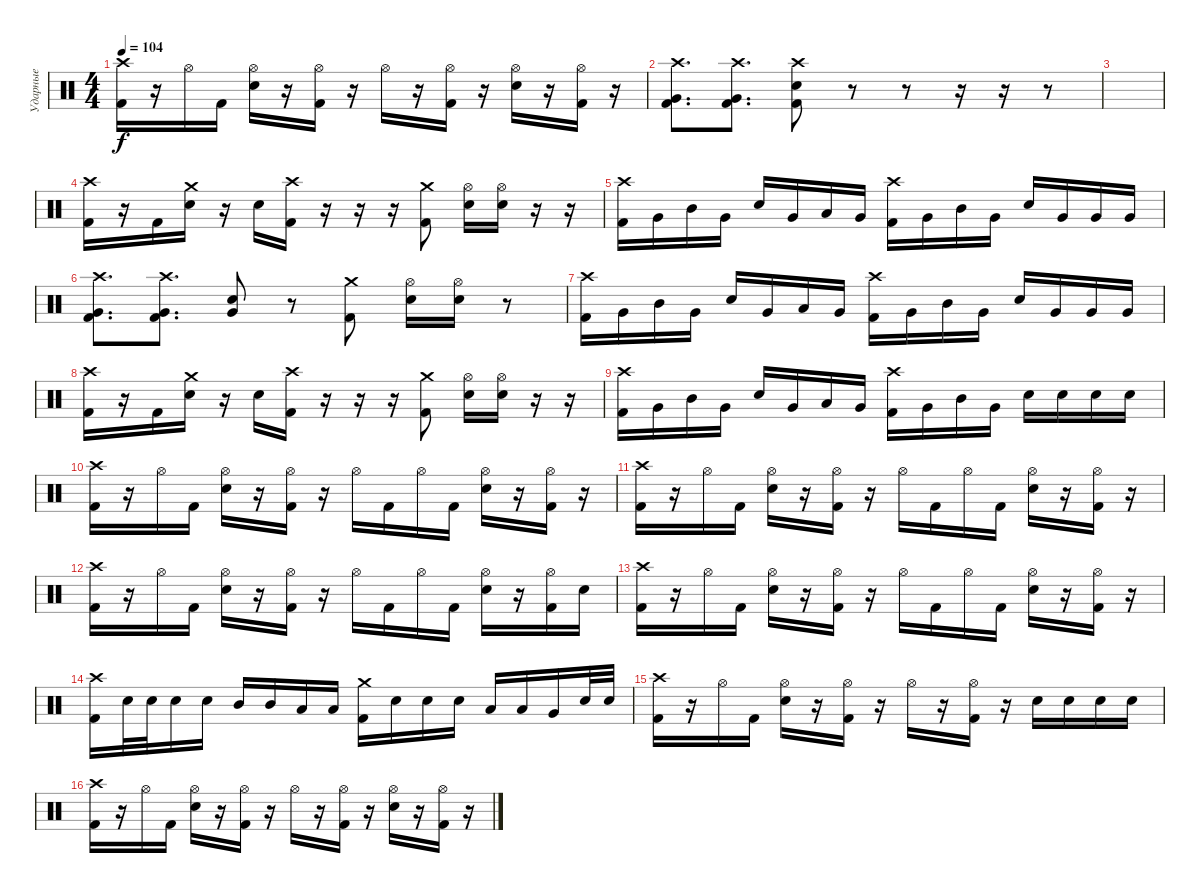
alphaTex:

\track ("Ударные" "Ударные") {instrument percussion}
\staff {score}
\articulation defaults
\ts (4 4)
\tempo 104
\clef neutral
\ks c
("Crash high (hit)" "Kick (hit) 2").16{dy f} r.16 "Hi-Hat (open)".16 "Kick (hit) 2".16 ("Hi-Hat (open)" "Snare (hit) 2").16 r.16 ("Hi-Hat (open)" "Kick (hit) 2").16 r.16 "Hi-Hat (open)".16 r.16 ("Hi-Hat (open)" "Kick (hit) 2").16 r.16 ("Hi-Hat (open)" "Snare (hit) 2").16 r.16 ("Hi-Hat (open)" "Kick (hit) 2").16 r.16 |
("Crash high (hit)" "Very Low Tom (hit)" "Kick (hit) 2").8{d} ("Crash high (hit)" "Very Low Tom (hit)" "Kick (hit) 2").8{d} ("Crash high (hit)" "Snare (hit) 2" "Kick (hit) 2").8 r.8 r.8 r.16 r.16 r.8 |
|
("Crash high (hit)" "Kick (hit) 2").16 r.16 "Kick (hit) 2".16 ("Crash medium (hit)" "Snare (hit) 2").16 r.16 "Snare (hit) 2".16 ("Crash high (hit)" "Kick (hit) 2").16 r.16 r.16 r.16 ("Crash medium (hit)" "Kick (hit) 2").8 ("Hi-Hat (open)" "Snare (hit) 2").16 ("Hi-Hat (open)" "Snare (hit) 2").16 r.16 r.16 |
("Crash high (hit)" "Kick (hit) 2").16 "Very Low Tom (hit)".16 "Mid Tom (hit)".16 "Very Low Tom (hit)".16 "Snare (hit) 2".16 "Very Low Tom (hit)".16 "Low Tom (hit)".16 "Very Low Tom (hit)".16 ("Crash high (hit)" "Kick (hit) 2").16 "Very Low Tom (hit)".16 "Mid Tom (hit)".16 "Very Low Tom (hit)".16 "Snare (hit) 2".16 "Very Low Tom (hit)".16 "Very Low Tom (hit)".16 "Very Low Tom (hit)".16 |
("Crash high (hit)" "Very Low Tom (hit)" "Kick (hit) 2").8{d} ("Crash high (hit)" "Very Low Tom (hit)" "Kick (hit) 2").8{d} ("Snare (hit) 2" "Very Low Tom (hit)").8 r.8 ("Crash medium (hit)" "Kick (hit) 2").8 ("Hi-Hat (open)" "Snare (hit) 2").16 ("Hi-Hat (open)" "Snare (hit) 2").16 r.8 |
("Crash high (hit)" "Kick (hit) 2").16 "Very Low Tom (hit)".16 "Mid Tom (hit)".16 "Very Low Tom (hit)".16 "Snare (hit) 2".16 "Very Low Tom (hit)".16 "Low Tom (hit)".16 "Very Low Tom (hit)".16 ("Crash high (hit)" "Kick (hit) 2").16 "Very Low Tom (hit)".16 "Mid Tom (hit)".16 "Very Low Tom (hit)".16 "Snare (hit) 2".16 "Very Low Tom (hit)".16 "Very Low Tom (hit)".16 "Very Low Tom (hit)".16 |
("Crash high (hit)" "Kick (hit) 2").16 r.16 "Kick (hit) 2".16 ("Crash medium (hit)" "Snare (hit) 2").16 r.16 "Snare (hit) 2".16 ("Crash high (hit)" "Kick (hit) 2").16 r.16 r.16 r.16 ("Crash medium (hit)" "Kick (hit) 2").8 ("Hi-Hat (open)" "Snare (hit) 2").16 ("Hi-Hat (open)" "Snare (hit) 2").16 r.16 r.16 |
("Crash high (hit)" "Kick (hit) 2").16 "Very Low Tom (hit)".16 "Mid Tom (hit)".16 "Very Low Tom (hit)".16 "Snare (hit) 2".16 "Very Low Tom (hit)".16 "Low Tom (hit)".16 "Very Low Tom (hit)".16 ("Crash high (hit)" "Kick (hit) 2").16 "Very Low Tom (hit)".16 "Mid Tom (hit)".16 "Very Low Tom (hit)".16 "Snare (hit) 2".16 "Snare (hit) 2".16 "Snare (hit) 2".16 "Snare (hit) 2".16 |
("Crash high (hit)" "Kick (hit) 2").16 r.16 "Hi-Hat (open)".16 "Kick (hit) 2".16 ("Hi-Hat (open)" "Snare (hit) 2").16 r.16 ("Hi-Hat (open)" "Kick (hit) 2").16 r.16 "Hi-Hat (open)".16 "Kick (hit) 2".16 "Hi-Hat (open)".16 "Kick (hit) 2".16 ("Hi-Hat (open)" "Snare (hit) 2").16 r.16 ("Hi-Hat (open)" "Kick (hit) 2").16 r.16 |
("Crash high (hit)" "Kick (hit) 2").16 r.16 "Hi-Hat (open)".16 "Kick (hit) 2".16 ("Hi-Hat (open)" "Snare (hit) 2").16 r.16 ("Hi-Hat (open)" "Kick (hit) 2").16 r.16 "Hi-Hat (open)".16 "Kick (hit) 2".16 "Hi-Hat (open)".16 "Kick (hit) 2".16 ("Hi-Hat (open)" "Snare (hit) 2").16 r.16 ("Hi-Hat (open)" "Kick (hit) 2").16 r.16 |
("Crash high (hit)" "Kick (hit) 2").16 r.16 "Hi-Hat (open)".16 "Kick (hit) 2".16 ("Hi-Hat (open)" "Snare (hit) 2").16 r.16 ("Hi-Hat (open)" "Kick (hit) 2").16 r.16 "Hi-Hat (open)".16 "Kick (hit) 2".16 "Hi-Hat (open)".16 "Kick (hit) 2".16 ("Hi-Hat (open)" "Snare (hit) 2").16 r.16 ("Hi-Hat (open)" "Kick (hit) 2").16 "Snare (hit) 2".16 |
("Crash high (hit)" "Kick (hit) 2").16 r.16 "Hi-Hat (open)".16 "Kick (hit) 2".16 ("Hi-Hat (open)" "Snare (hit) 2").16 r.16 ("Hi-Hat (open)" "Kick (hit) 2").16 r.16 "Hi-Hat (open)".16 "Kick (hit) 2".16 "Hi-Hat (open)".16 "Kick (hit) 2".16 ("Hi-Hat (open)" "Snare (hit) 2").16 r.16 ("Hi-Hat (open)" "Kick (hit) 2").16 r.16 |
("Crash high (hit)" "Kick (hit) 2").16 "Snare (hit) 2".32 "Snare (hit) 2".32 "Snare (hit) 2".16 "Snare (hit) 2".16 "Mid Tom (hit)".16 "Mid Tom (hit)".16 "Low Tom (hit)".16 "Low Tom (hit)".16 ("Crash medium (hit)" "Kick (hit) 2").16 "Snare (hit) 2".16 "Snare (hit) 2".16 "Snare (hit) 2".16 "Low Tom (hit)".16 "Low Tom (hit)".16 "Very Low Tom (hit)".16 "Snare (hit) 2".32 "Snare (hit) 2".32 |
("Crash high (hit)" "Kick (hit) 2").16 r.16 "Hi-Hat (open)".16 "Kick (hit) 2".16 ("Hi-Hat (open)" "Snare (hit) 2").16 r.16 ("Hi-Hat (open)" "Kick (hit) 2").16 r.16 "Hi-Hat (open)".16 r.16 ("Hi-Hat (open)" "Kick (hit) 2").16 r.16 "Snare (hit) 2".16 "Snare (hit) 2".16 "Snare (hit) 2".16 "Snare (hit) 2".16 |
("Crash high (hit)" "Kick (hit) 2").16 r.16 "Hi-Hat (open)".16 "Kick (hit) 2".16 ("Hi-Hat (open)" "Snare (hit) 2").16 r.16 ("Hi-Hat (open)" "Kick (hit) 2").16 r.16 "Hi-Hat (open)".16 r.16 ("Hi-Hat (open)" "Kick (hit) 2").16 r.16 ("Hi-Hat (open)" "Snare (hit) 2").16 r.16 ("Hi-Hat (open)" "Kick (hit) 2").16 r.16
